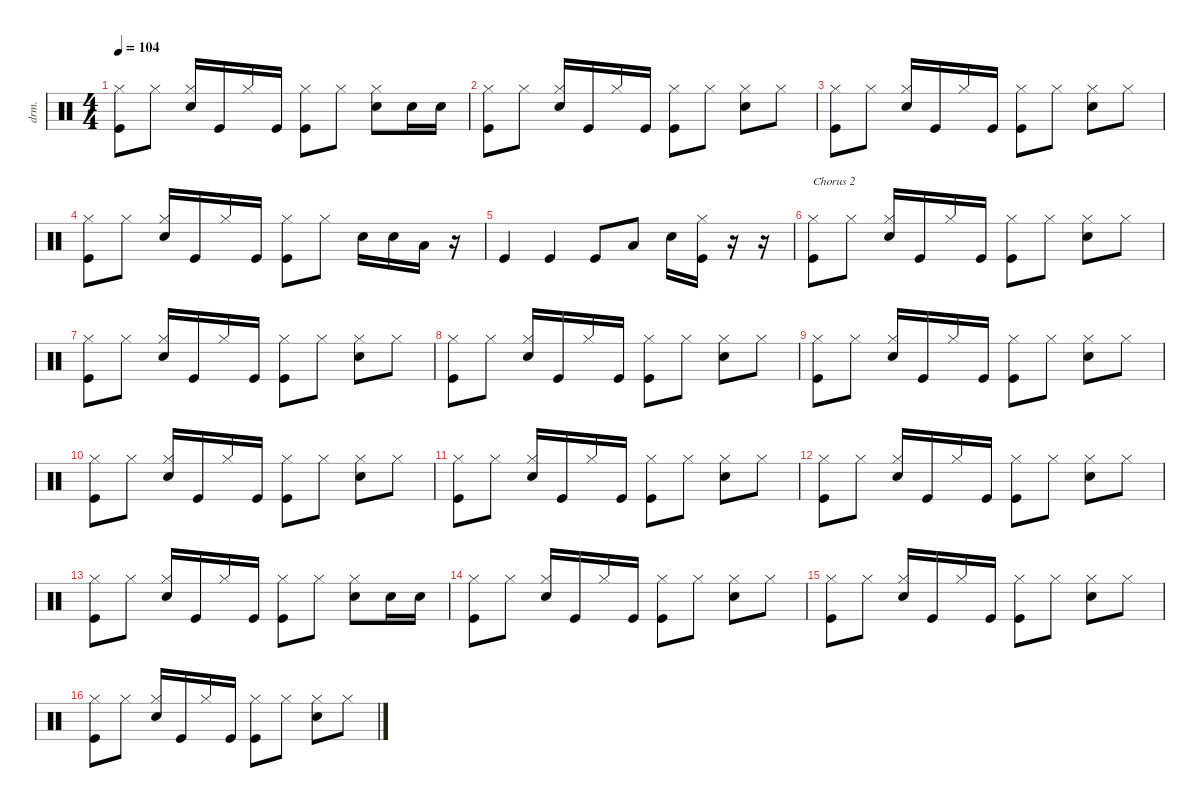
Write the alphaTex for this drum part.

\defaultSystemsLayout 4
\hideDynamics
\bracketExtendMode nobrackets
\otherSystemsTrackNameOrientation horizontal
\track ("Drumkit" "drm.") {instrument percussion}
\staff {score}
\articulation defaults
\ts (4 4)
\tempo 104
\clef neutral
\ks c
("Kick (hit)" "Hi-Hat (closed)").8{dy mf beam Down} "Hi-Hat (closed)".8{beam Down} ("Hi-Hat (closed)" "Snare (hit) 2").16{beam Up} "Kick (hit)".16{beam Up} "Hi-Hat (closed)".16{beam Up} "Kick (hit)".16{beam Up} ("Hi-Hat (closed)" "Kick (hit)").8{beam Down} "Hi-Hat (closed)".8{beam Down} ("Hi-Hat (closed)" "Snare (hit) 2").8{beam Down} "Snare (hit) 2".16{beam Down} "Snare (hit) 2".16{beam Down} |
("Kick (hit)" "Hi-Hat (closed)").8{beam Down} "Hi-Hat (closed)".8{beam Down} ("Hi-Hat (closed)" "Snare (hit) 2").16{beam Up} "Kick (hit)".16{beam Up} "Hi-Hat (closed)".16{beam Up} "Kick (hit)".16{beam Up} ("Hi-Hat (closed)" "Kick (hit)").8{beam Down} "Hi-Hat (closed)".8{beam Down} ("Hi-Hat (closed)" "Snare (hit) 2").8{beam Down} "Hi-Hat (closed)".8{beam Down} |
("Kick (hit)" "Hi-Hat (closed)").8{beam Down} "Hi-Hat (closed)".8{beam Down} ("Hi-Hat (closed)" "Snare (hit) 2").16{beam Up} "Kick (hit)".16{beam Up} "Hi-Hat (closed)".16{beam Up} "Kick (hit)".16{beam Up} ("Hi-Hat (closed)" "Kick (hit)").8{beam Down} "Hi-Hat (closed)".8{beam Down} ("Hi-Hat (closed)" "Snare (hit) 2").8{beam Down} "Hi-Hat (closed)".8{beam Down} |
("Kick (hit)" "Hi-Hat (closed)").8{beam Down} "Hi-Hat (closed)".8{beam Down} ("Hi-Hat (closed)" "Snare (hit) 2").16{beam Up} "Kick (hit)".16{beam Up} "Hi-Hat (closed)".16{beam Up} "Kick (hit)".16{beam Up} ("Hi-Hat (closed)" "Kick (hit)").8{beam Down} "Hi-Hat (closed)".8{beam Down} "Snare (hit) 2".16{beam Down} "Snare (hit) 2".16{beam Down} "Low Tom (hit)".16{beam Down} r.16{beam Down} |
"Kick (hit)".4{beam Up} "Kick (hit)".4{beam Up} "Kick (hit)".8{beam Up} "Low Tom (hit)".8{beam Up} "Snare (hit) 2".16{beam Down} ("Kick (hit)" "Hi-Hat (closed)").16{beam Down} r.16{beam Down} r.16{beam Down} |
("Kick (hit)" "Hi-Hat (closed)").8{txt "Chorus 2" beam Down} "Hi-Hat (closed)".8{beam Down} ("Hi-Hat (closed)" "Snare (hit) 2").16{beam Up} "Kick (hit)".16{beam Up} "Hi-Hat (closed)".16{beam Up} "Kick (hit)".16{beam Up} ("Hi-Hat (closed)" "Kick (hit)").8{beam Down} "Hi-Hat (closed)".8{beam Down} ("Hi-Hat (closed)" "Snare (hit) 2").8{beam Down} "Hi-Hat (closed)".8{beam Down} |
("Kick (hit)" "Hi-Hat (closed)").8{beam Down} "Hi-Hat (closed)".8{beam Down} ("Hi-Hat (closed)" "Snare (hit) 2").16{beam Up} "Kick (hit)".16{beam Up} "Hi-Hat (closed)".16{beam Up} "Kick (hit)".16{beam Up} ("Hi-Hat (closed)" "Kick (hit)").8{beam Down} "Hi-Hat (closed)".8{beam Down} ("Hi-Hat (closed)" "Snare (hit) 2").8{beam Down} "Hi-Hat (closed)".8{beam Down} |
("Kick (hit)" "Hi-Hat (closed)").8{beam Down} "Hi-Hat (closed)".8{beam Down} ("Hi-Hat (closed)" "Snare (hit) 2").16{beam Up} "Kick (hit)".16{beam Up} "Hi-Hat (closed)".16{beam Up} "Kick (hit)".16{beam Up} ("Hi-Hat (closed)" "Kick (hit)").8{beam Down} "Hi-Hat (closed)".8{beam Down} ("Hi-Hat (closed)" "Snare (hit) 2").8{beam Down} "Hi-Hat (closed)".8{beam Down} |
("Kick (hit)" "Hi-Hat (closed)").8{beam Down} "Hi-Hat (closed)".8{beam Down} ("Hi-Hat (closed)" "Snare (hit) 2").16{beam Up} "Kick (hit)".16{beam Up} "Hi-Hat (closed)".16{beam Up} "Kick (hit)".16{beam Up} ("Hi-Hat (closed)" "Kick (hit)").8{beam Down} "Hi-Hat (closed)".8{beam Down} ("Hi-Hat (closed)" "Snare (hit) 2").8{beam Down} "Hi-Hat (closed)".8{beam Down} |
("Kick (hit)" "Hi-Hat (closed)").8{beam Down} "Hi-Hat (closed)".8{beam Down} ("Hi-Hat (closed)" "Snare (hit) 2").16{beam Up} "Kick (hit)".16{beam Up} "Hi-Hat (closed)".16{beam Up} "Kick (hit)".16{beam Up} ("Hi-Hat (closed)" "Kick (hit)").8{beam Down} "Hi-Hat (closed)".8{beam Down} ("Hi-Hat (closed)" "Snare (hit) 2").8{beam Down} "Hi-Hat (closed)".8{beam Down} |
("Kick (hit)" "Hi-Hat (closed)").8{beam Down} "Hi-Hat (closed)".8{beam Down} ("Hi-Hat (closed)" "Snare (hit) 2").16{beam Up} "Kick (hit)".16{beam Up} "Hi-Hat (closed)".16{beam Up} "Kick (hit)".16{beam Up} ("Hi-Hat (closed)" "Kick (hit)").8{beam Down} "Hi-Hat (closed)".8{beam Down} ("Hi-Hat (closed)" "Snare (hit) 2").8{beam Down} "Hi-Hat (closed)".8{beam Down} |
("Kick (hit)" "Hi-Hat (closed)").8{beam Down} "Hi-Hat (closed)".8{beam Down} ("Hi-Hat (closed)" "Snare (hit) 2").16{beam Up} "Kick (hit)".16{beam Up} "Hi-Hat (closed)".16{beam Up} "Kick (hit)".16{beam Up} ("Hi-Hat (closed)" "Kick (hit)").8{beam Down} "Hi-Hat (closed)".8{beam Down} ("Hi-Hat (closed)" "Snare (hit) 2").8{beam Down} "Hi-Hat (closed)".8{beam Down} |
("Kick (hit)" "Hi-Hat (closed)").8{beam Down} "Hi-Hat (closed)".8{beam Down} ("Hi-Hat (closed)" "Snare (hit) 2").16{beam Up} "Kick (hit)".16{beam Up} "Hi-Hat (closed)".16{beam Up} "Kick (hit)".16{beam Up} ("Hi-Hat (closed)" "Kick (hit)").8{beam Down} "Hi-Hat (closed)".8{beam Down} ("Hi-Hat (closed)" "Snare (hit) 2").8{beam Down} "Snare (hit) 2".16{beam Down} "Snare (hit) 2".16{beam Down} |
("Kick (hit)" "Hi-Hat (closed)").8{beam Down} "Hi-Hat (closed)".8{beam Down} ("Hi-Hat (closed)" "Snare (hit) 2").16{beam Up} "Kick (hit)".16{beam Up} "Hi-Hat (closed)".16{beam Up} "Kick (hit)".16{beam Up} ("Hi-Hat (closed)" "Kick (hit)").8{beam Down} "Hi-Hat (closed)".8{beam Down} ("Hi-Hat (closed)" "Snare (hit) 2").8{beam Down} "Hi-Hat (closed)".8{beam Down} |
("Kick (hit)" "Hi-Hat (closed)").8{beam Down} "Hi-Hat (closed)".8{beam Down} ("Hi-Hat (closed)" "Snare (hit) 2").16{beam Up} "Kick (hit)".16{beam Up} "Hi-Hat (closed)".16{beam Up} "Kick (hit)".16{beam Up} ("Hi-Hat (closed)" "Kick (hit)").8{beam Down} "Hi-Hat (closed)".8{beam Down} ("Hi-Hat (closed)" "Snare (hit) 2").8{beam Down} "Hi-Hat (closed)".8{beam Down} |
("Kick (hit)" "Hi-Hat (closed)").8{beam Down} "Hi-Hat (closed)".8{beam Down} ("Hi-Hat (closed)" "Snare (hit) 2").16{beam Up} "Kick (hit)".16{beam Up} "Hi-Hat (closed)".16{beam Up} "Kick (hit)".16{beam Up} ("Hi-Hat (closed)" "Kick (hit)").8{beam Down} "Hi-Hat (closed)".8{beam Down} ("Hi-Hat (closed)" "Snare (hit) 2").8{beam Down} "Hi-Hat (closed)".8{beam Down}
